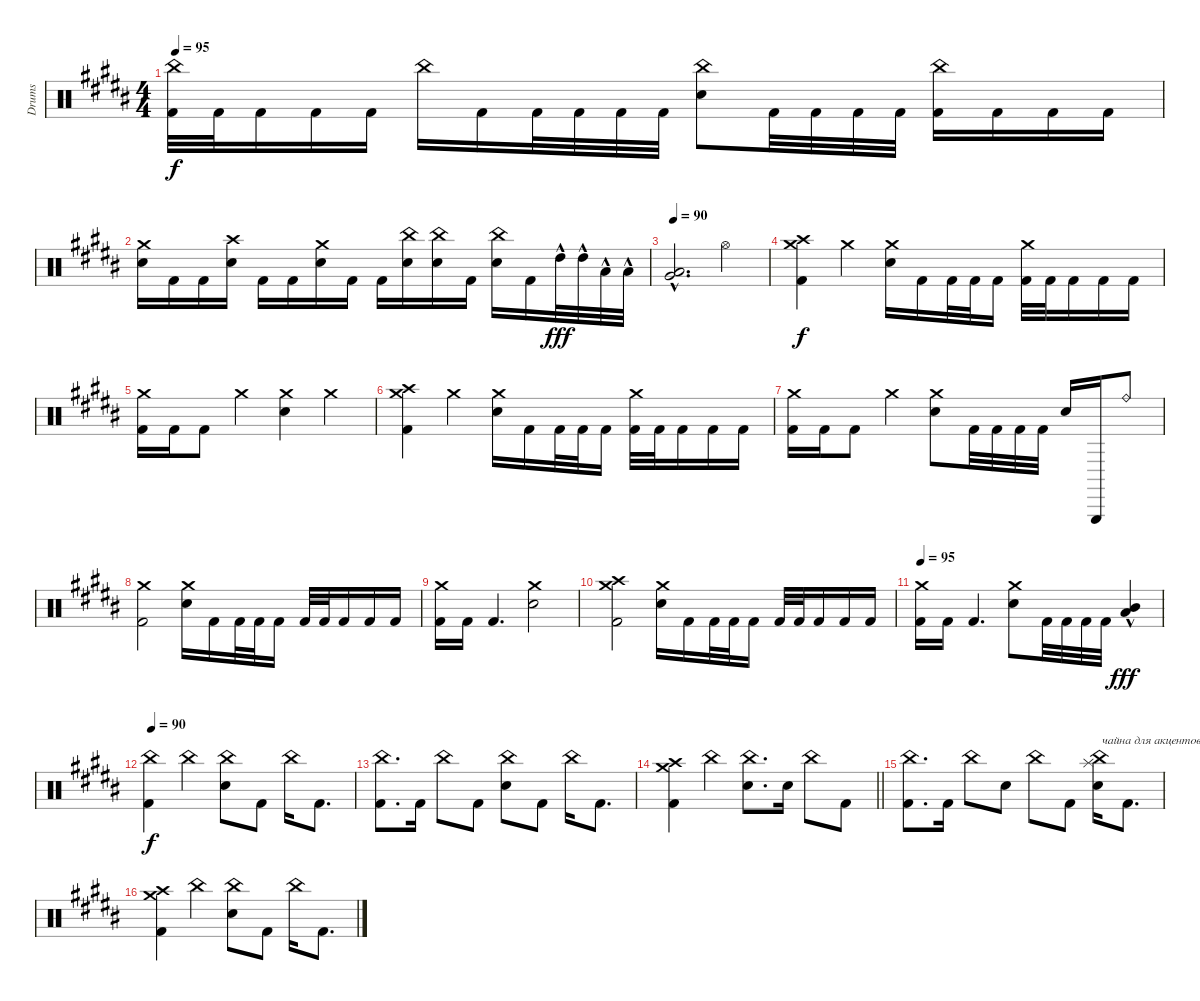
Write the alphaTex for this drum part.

\track ("Drums" "Drums") {instrument percussion}
\staff {score}
\articulation defaults
\ts (4 4)
\tempo 95
\clef neutral
\ks b
("China (hit)" "Kick (hit) 2").32{dy f} "Kick (hit) 2".32 "Kick (hit) 2".16 "Kick (hit) 2".16 "Kick (hit) 2".16 "China (hit)".16 "Kick (hit) 2".16 "Kick (hit) 2".32 "Kick (hit) 2".32 "Kick (hit) 2".32 "Kick (hit) 2".32 ("China (hit)" "Electric Snare (hit)").8 "Kick (hit) 2".32 "Kick (hit) 2".32 "Kick (hit) 2".32 "Kick (hit) 2".32 ("China (hit)" "Kick (hit) 2").16 "Kick (hit) 2".16 "Kick (hit) 2".16 "Kick (hit) 2".16 |
("Crash medium (hit)" "Electric Snare (hit)").16 "Kick (hit) 2".16 "Kick (hit) 2".16 ("Crash high (hit)" "Electric Snare (hit)").16 "Kick (hit) 2".16 "Kick (hit) 2".16 ("Crash medium (hit)" "Electric Snare (hit)").16 "Kick (hit) 2".16 "Kick (hit) 2".16 ("China (hit)" "Electric Snare (hit)").16 ("China (hit)" "Electric Snare (hit)").16 "Kick (hit) 2".16 ("China (hit)" "Electric Snare (hit)").16 "Kick (hit) 2".16 "High Tom (hit)"{hac}.32{dy fff} "High Tom (hit)"{hac}.32 "Low Tom (hit)"{hac}.32 "Low Tom (hit)"{hac}.32 |
\tempo 90
("Very Low Tom (hit)"{hac} "Low Tom (hit)"{hac}).2{d} "Hi-Hat (open)".4 |
("Crash medium (hit)" "Crash high (hit)" "Kick (hit) 2").4{dy f} "Crash medium (hit)".4 ("Crash medium (hit)" "Electric Snare (hit)").16 "Kick (hit) 2".16 "Kick (hit) 2".32 "Kick (hit) 2".32 "Kick (hit) 2".16 ("Crash medium (hit)" "Kick (hit) 2").32 "Kick (hit) 2".32 "Kick (hit) 2".16 "Kick (hit) 2".16 "Kick (hit) 2".16 |
("Crash medium (hit)" "Kick (hit) 2").16 "Kick (hit) 2".16 "Kick (hit) 2".8 "Crash medium (hit)".4 ("Crash medium (hit)" "Electric Snare (hit)").4 "Crash medium (hit)".4 |
("Crash medium (hit)" "Crash high (hit)" "Kick (hit) 2").4 "Crash medium (hit)".4 ("Crash medium (hit)" "Electric Snare (hit)").16 "Kick (hit) 2".16 "Kick (hit) 2".32 "Kick (hit) 2".32 "Kick (hit) 2".16 ("Crash medium (hit)" "Kick (hit) 2").32 "Kick (hit) 2".32 "Kick (hit) 2".16 "Kick (hit) 2".16 "Kick (hit) 2".16 |
("Crash medium (hit)" "Kick (hit) 2").16 "Kick (hit) 2".16 "Kick (hit) 2".8 "Crash medium (hit)".4 ("Crash medium (hit)" "Electric Snare (hit)").8 "Kick (hit) 2".32 "Kick (hit) 2".32 "Kick (hit) 2".32 "Kick (hit) 2".32 "Electric Snare (hit)".16 "Triangle (hit)".16 "Ride (bell)".8 |
("Crash medium (hit)" "Kick (hit) 2").2 ("Crash medium (hit)" "Electric Snare (hit)").16 "Kick (hit) 2".16 "Kick (hit) 2".32 "Kick (hit) 2".32 "Kick (hit) 2".16 "Kick (hit) 2".32 "Kick (hit) 2".32 "Kick (hit) 2".16 "Kick (hit) 2".16 "Kick (hit) 2".16 |
("Crash medium (hit)" "Kick (hit) 2").16 "Kick (hit) 2".16 "Kick (hit) 2".4{d} ("Crash medium (hit)" "Electric Snare (hit)").2 |
("Crash medium (hit)" "Crash high (hit)" "Kick (hit) 2").2 ("Crash medium (hit)" "Electric Snare (hit)").16 "Kick (hit) 2".16 "Kick (hit) 2".32 "Kick (hit) 2".32 "Kick (hit) 2".16 "Kick (hit) 2".32 "Kick (hit) 2".32 "Kick (hit) 2".16 "Kick (hit) 2".16 "Kick (hit) 2".16 |
\tempo 95
("Crash medium (hit)" "Kick (hit) 2").16 "Kick (hit) 2".16 "Kick (hit) 2".4{d} ("Crash medium (hit)" "Electric Snare (hit)").8 "Kick (hit) 2".32 "Kick (hit) 2".32 "Kick (hit) 2".32 "Kick (hit) 2".32 ("Mid Tom (hit)"{hac} "Low Tom (hit)"{hac}).4{dy fff} |
\tempo 90
("China (hit)" "Kick (hit) 2").4{dy f} "China (hit)".4 ("China (hit)" "Electric Snare (hit)").8 "Kick (hit) 2".8 "China (hit)".16 "Kick (hit) 2".8{d} |
("China (hit)" "Kick (hit) 2").8{d} "Kick (hit) 2".16 "China (hit)".8 "Kick (hit) 2".8 ("China (hit)" "Electric Snare (hit)").8 "Kick (hit) 2".8 "China (hit)".16 "Kick (hit) 2".8{d} |
\barLineRight lightlight
("Crash medium (hit)" "Crash high (hit)" "Kick (hit) 2").4 "China (hit)".4 ("China (hit)" "Electric Snare (hit)").8{d} "Electric Snare (hit)".16 "China (hit)".8 "Kick (hit) 2".8 |
\section ("" "")
("China (hit)" "Kick (hit) 2").8{d} "Kick (hit) 2".16 "China (hit)".8 "Electric Snare (hit)".8 "China (hit)".8 "Kick (hit) 2".8 ("Splash (hit)" "China (hit)" "Electric Snare (hit)").16{txt "чайна для акцентов"} "Kick (hit) 2".8{d} |
("Crash medium (hit)" "Crash high (hit)" "Kick (hit) 2").4 "China (hit)".4 ("China (hit)" "Electric Snare (hit)").8 "Kick (hit) 2".8 "China (hit)".16 "Kick (hit) 2".8{d}
